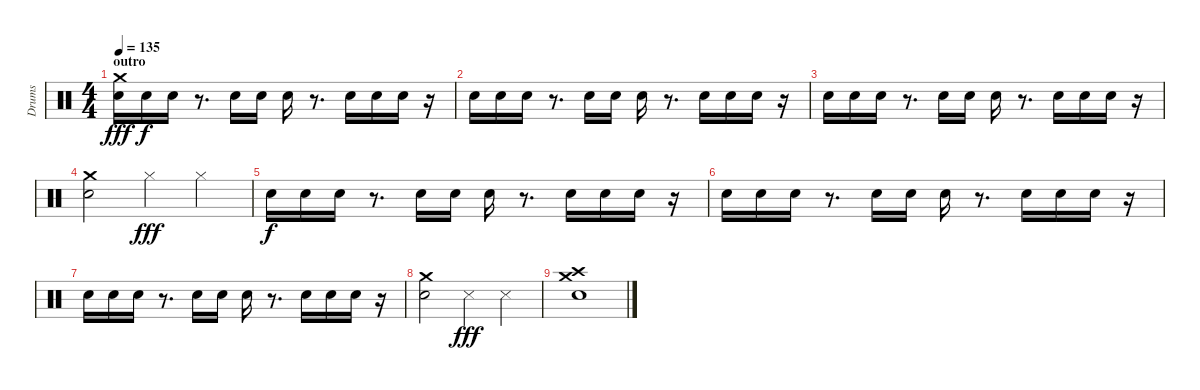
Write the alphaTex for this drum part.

\track ("Drums" "Drums") {instrument percussion}
\staff {score}
\articulation defaults
\ts (4 4)
\section ("" "outro")
\tempo 135
\clef neutral
\ks c
("Crash medium (hit)" "Electric Snare (hit)").16{dy fff} "Electric Snare (hit)".16{dy f} "Electric Snare (hit)".16 r.8{d} "Electric Snare (hit)".16 "Electric Snare (hit)".16 "Electric Snare (hit)".16 r.8{d} "Electric Snare (hit)".16 "Electric Snare (hit)".16 "Electric Snare (hit)".16 r.16 |
"Electric Snare (hit)".16 "Electric Snare (hit)".16 "Electric Snare (hit)".16 r.8{d} "Electric Snare (hit)".16 "Electric Snare (hit)".16 "Electric Snare (hit)".16 r.8{d} "Electric Snare (hit)".16 "Electric Snare (hit)".16 "Electric Snare (hit)".16 r.16 |
"Electric Snare (hit)".16 "Electric Snare (hit)".16 "Electric Snare (hit)".16 r.8{d} "Electric Snare (hit)".16 "Electric Snare (hit)".16 "Electric Snare (hit)".16 r.8{d} "Electric Snare (hit)".16 "Electric Snare (hit)".16 "Electric Snare (hit)".16 r.16 |
("Crash medium (hit)" "Electric Snare (hit)").2 "Hi-Hat (closed)".4{dy fff} "Hi-Hat (closed)".4 |
"Electric Snare (hit)".16{dy f} "Electric Snare (hit)".16 "Electric Snare (hit)".16 r.8{d} "Electric Snare (hit)".16 "Electric Snare (hit)".16 "Electric Snare (hit)".16 r.8{d} "Electric Snare (hit)".16 "Electric Snare (hit)".16 "Electric Snare (hit)".16 r.16 |
"Electric Snare (hit)".16 "Electric Snare (hit)".16 "Electric Snare (hit)".16 r.8{d} "Electric Snare (hit)".16 "Electric Snare (hit)".16 "Electric Snare (hit)".16 r.8{d} "Electric Snare (hit)".16 "Electric Snare (hit)".16 "Electric Snare (hit)".16 r.16 |
"Electric Snare (hit)".16 "Electric Snare (hit)".16 "Electric Snare (hit)".16 r.8{d} "Electric Snare (hit)".16 "Electric Snare (hit)".16 "Electric Snare (hit)".16 r.8{d} "Electric Snare (hit)".16 "Electric Snare (hit)".16 "Electric Snare (hit)".16 r.16 |
("Crash medium (hit)" "Electric Snare (hit)").2 "Snare (side stick) 3".4{dy fff} "Snare (side stick) 3".4 |
("Crash high (hit)" "Crash medium (hit)" "Electric Snare (hit)").1
